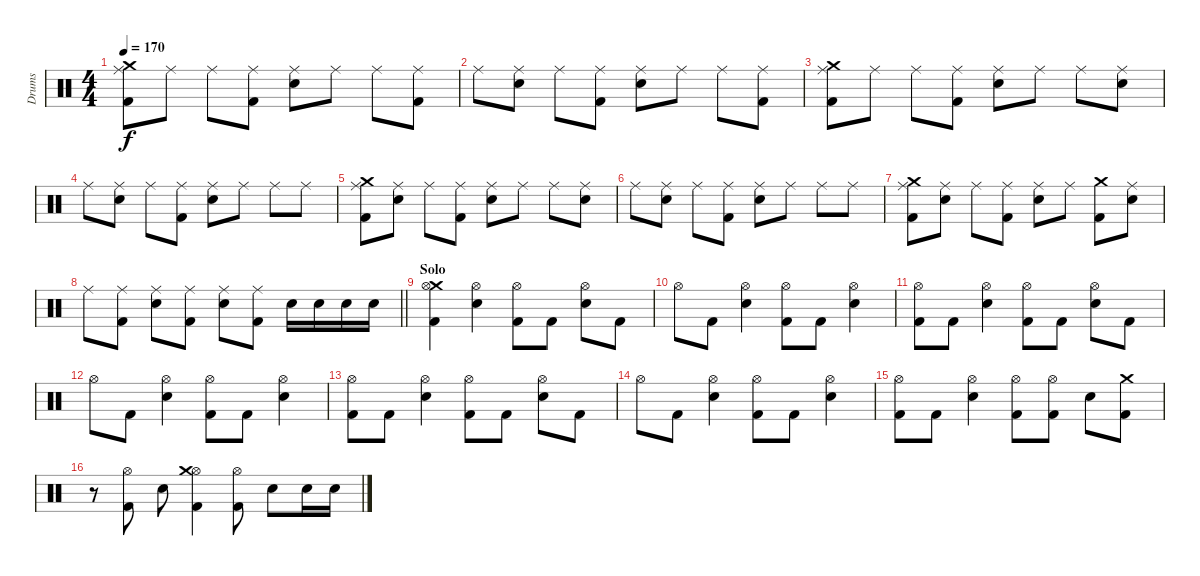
\track ("Drums" "Drums") {instrument percussion}
\staff {score}
\articulation defaults
\ts (4 4)
\tempo 170
\clef neutral
\ks c
("Crash medium (hit)" "Ride (middle)" "Kick (hit) 2").8{dy f} "Ride (middle)".8 "Ride (middle)".8 ("Ride (middle)" "Kick (hit) 2").8 ("Ride (middle)" "Electric Snare (hit)").8 "Ride (middle)".8 "Ride (middle)".8 ("Ride (middle)" "Kick (hit) 2").8 |
"Ride (middle)".8 ("Ride (middle)" "Electric Snare (hit)").8 "Ride (middle)".8 ("Ride (middle)" "Kick (hit) 2").8 ("Ride (middle)" "Electric Snare (hit)").8 "Ride (middle)".8 "Ride (middle)".8 ("Ride (middle)" "Kick (hit) 2").8 |
("Crash medium (hit)" "Ride (middle)" "Kick (hit) 2").8 "Ride (middle)".8 "Ride (middle)".8 ("Ride (middle)" "Kick (hit) 2").8 ("Ride (middle)" "Electric Snare (hit)").8 "Ride (middle)".8 "Ride (middle)".8 ("Ride (middle)" "Electric Snare (hit)").8 |
"Ride (middle)".8 ("Ride (middle)" "Electric Snare (hit)").8 "Ride (middle)".8 ("Ride (middle)" "Kick (hit) 2").8 ("Ride (middle)" "Electric Snare (hit)").8 "Ride (middle)".8 "Ride (middle)".8 "Ride (middle)".8 |
("Crash medium (hit)" "Ride (middle)" "Kick (hit) 2").8 ("Ride (middle)" "Electric Snare (hit)").8 "Ride (middle)".8 ("Ride (middle)" "Kick (hit) 2").8 ("Ride (middle)" "Electric Snare (hit)").8 "Ride (middle)".8 "Ride (middle)".8 ("Ride (middle)" "Electric Snare (hit)").8 |
"Ride (middle)".8 ("Ride (middle)" "Electric Snare (hit)").8 "Ride (middle)".8 ("Ride (middle)" "Kick (hit) 2").8 ("Ride (middle)" "Electric Snare (hit)").8 "Ride (middle)".8 "Ride (middle)".8 "Ride (middle)".8 |
("Crash medium (hit)" "Ride (middle)" "Kick (hit) 2").8 ("Ride (middle)" "Electric Snare (hit)").8 "Ride (middle)".8 ("Ride (middle)" "Kick (hit) 2").8 ("Ride (middle)" "Electric Snare (hit)").8 "Ride (middle)".8 ("Crash medium (hit)" "Kick (hit) 2").8 ("Ride (middle)" "Electric Snare (hit)").8 |
\barLineRight lightlight "Ride (middle)".8
("Ride (middle)" "Kick (hit) 2").8 ("Ride (middle)" "Electric Snare (hit)").8 ("Ride (middle)" "Kick (hit) 2").8 ("Ride (middle)" "Electric Snare (hit)").8 ("Ride (middle)" "Kick (hit) 2").8 "Electric Snare (hit)".16 "Electric Snare (hit)".16 "Electric Snare (hit)".16 "Electric Snare (hit)".16 |
\section ("" "Solo")
("Crash medium (hit)" "Hi-Hat (open)" "Kick (hit) 2").4 ("Hi-Hat (open)" "Electric Snare (hit)").4 ("Hi-Hat (open)" "Kick (hit) 2").8 "Kick (hit) 2".8 ("Hi-Hat (open)" "Electric Snare (hit)").8 "Kick (hit) 2".8 |
"Hi-Hat (open)".8 "Kick (hit) 2".8 ("Hi-Hat (open)" "Electric Snare (hit)").4 ("Hi-Hat (open)" "Kick (hit) 2").8 "Kick (hit) 2".8 ("Hi-Hat (open)" "Electric Snare (hit)").4 |
("Hi-Hat (open)" "Kick (hit) 2").8 "Kick (hit) 2".8 ("Hi-Hat (open)" "Electric Snare (hit)").4 ("Hi-Hat (open)" "Kick (hit) 2").8 "Kick (hit) 2".8 ("Hi-Hat (open)" "Electric Snare (hit)").8 "Kick (hit) 2".8 |
"Hi-Hat (open)".8 "Kick (hit) 2".8 ("Hi-Hat (open)" "Electric Snare (hit)").4 ("Hi-Hat (open)" "Kick (hit) 2").8 "Kick (hit) 2".8 ("Hi-Hat (open)" "Electric Snare (hit)").4 |
("Hi-Hat (open)" "Kick (hit) 2").8 "Kick (hit) 2".8 ("Hi-Hat (open)" "Electric Snare (hit)").4 ("Hi-Hat (open)" "Kick (hit) 2").8 "Kick (hit) 2".8 ("Hi-Hat (open)" "Electric Snare (hit)").8 "Kick (hit) 2".8 |
"Hi-Hat (open)".8 "Kick (hit) 2".8 ("Hi-Hat (open)" "Electric Snare (hit)").4 ("Hi-Hat (open)" "Kick (hit) 2").8 "Kick (hit) 2".8 ("Hi-Hat (open)" "Electric Snare (hit)").4 |
("Hi-Hat (open)" "Kick (hit) 2").8 "Kick (hit) 2".8 ("Hi-Hat (open)" "Electric Snare (hit)").4 ("Hi-Hat (open)" "Kick (hit) 2").8 ("Hi-Hat (open)" "Kick (hit) 2").8 "Electric Snare (hit)".8 ("Crash medium (hit)" "Kick (hit) 2").8 |
r.8 ("Hi-Hat (open)" "Kick (hit) 2").8 "Electric Snare (hit)".8 ("Hi-Hat (open)" "Crash medium (hit)" "Kick (hit) 2").4 ("Hi-Hat (open)" "Kick (hit) 2").8 "Electric Snare (hit)".8 "Electric Snare (hit)".16 "Electric Snare (hit)".16
